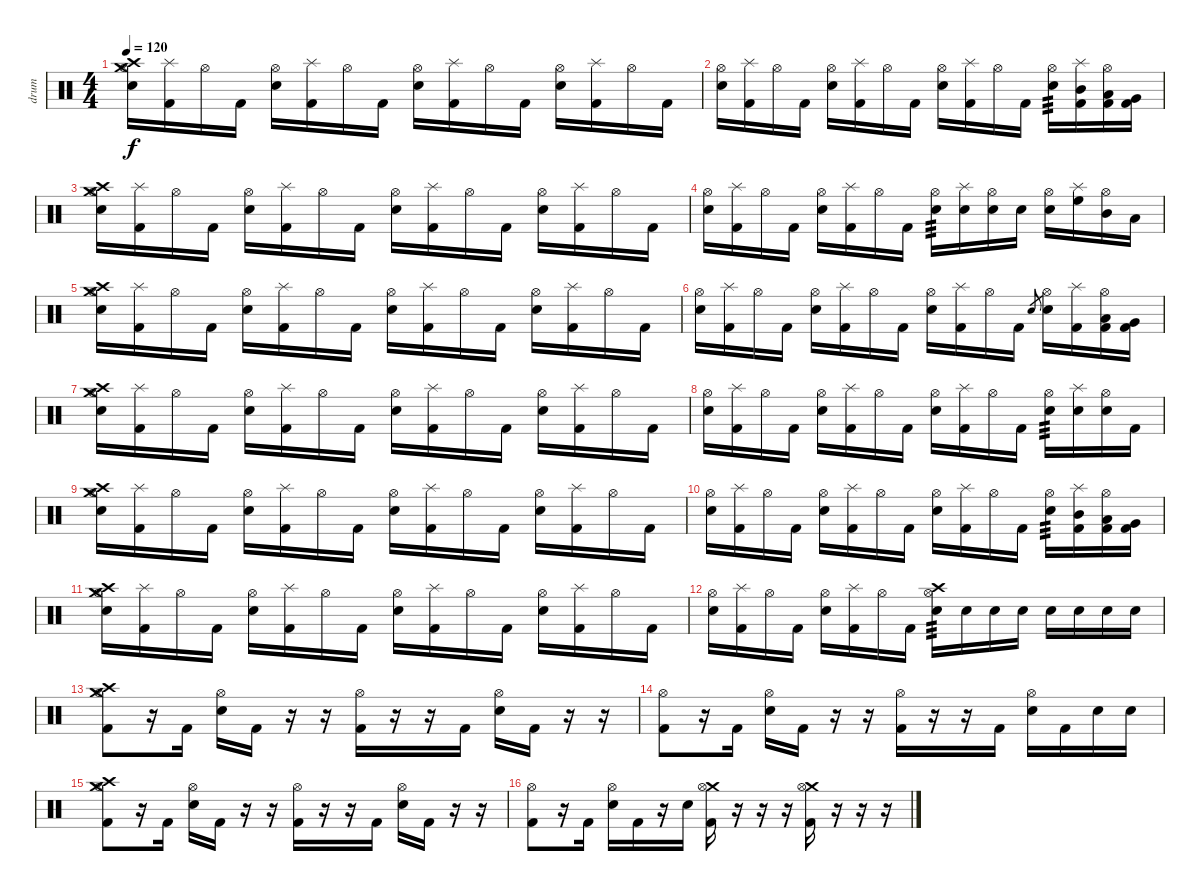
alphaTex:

\track ("drum" "drum") {instrument percussion}
\staff {score}
\articulation defaults
\ts (4 4)
\tempo 120
\clef neutral
\ks c
("Crash medium (hit)" "Hi-Hat (open)" "Crash high (hit)" "Electric Snare (hit)").16{dy f} ("Splash (hit)" "Kick (hit) 2").16 "Hi-Hat (open)".16 "Kick (hit) 2".16 ("Hi-Hat (open)" "Electric Snare (hit)").16 ("Splash (hit)" "Kick (hit) 2").16 "Hi-Hat (open)".16 "Kick (hit) 2".16 ("Hi-Hat (open)" "Electric Snare (hit)").16 ("Splash (hit)" "Kick (hit) 2").16 "Hi-Hat (open)".16 "Kick (hit) 2".16 ("Hi-Hat (open)" "Electric Snare (hit)").16 ("Splash (hit)" "Kick (hit) 2").16 "Hi-Hat (open)".16 "Kick (hit) 2".16 |
("Hi-Hat (open)" "Electric Snare (hit)").16 ("Splash (hit)" "Kick (hit) 2").16 "Hi-Hat (open)".16 "Kick (hit) 2".16 ("Hi-Hat (open)" "Electric Snare (hit)").16 ("Splash (hit)" "Kick (hit) 2").16 "Hi-Hat (open)".16 "Kick (hit) 2".16 ("Hi-Hat (open)" "Electric Snare (hit)").16 ("Splash (hit)" "Kick (hit) 2").16 "Hi-Hat (open)".16 "Kick (hit) 2".16 ("Hi-Hat (open)" "Electric Snare (hit)").16{tp 3} ("Splash (hit)" "Mid Tom (hit)" "Kick (hit) 2").16 ("Hi-Hat (open)" "Low Tom (hit)" "Kick (hit) 2").16 ("Very Low Tom (hit)" "Kick (hit) 2").16 |
("Crash medium (hit)" "Hi-Hat (open)" "Crash high (hit)" "Electric Snare (hit)").16 ("Splash (hit)" "Kick (hit) 2").16 "Hi-Hat (open)".16 "Kick (hit) 2".16 ("Hi-Hat (open)" "Electric Snare (hit)").16 ("Splash (hit)" "Kick (hit) 2").16 "Hi-Hat (open)".16 "Kick (hit) 2".16 ("Hi-Hat (open)" "Electric Snare (hit)").16 ("Splash (hit)" "Kick (hit) 2").16 "Hi-Hat (open)".16 "Kick (hit) 2".16 ("Hi-Hat (open)" "Electric Snare (hit)").16 ("Splash (hit)" "Kick (hit) 2").16 "Hi-Hat (open)".16 "Kick (hit) 2".16 |
("Hi-Hat (open)" "Electric Snare (hit)").16 ("Splash (hit)" "Kick (hit) 2").16 "Hi-Hat (open)".16 "Kick (hit) 2".16 ("Hi-Hat (open)" "Electric Snare (hit)").16 ("Splash (hit)" "Kick (hit) 2").16 "Hi-Hat (open)".16 "Kick (hit) 2".16 ("Hi-Hat (open)" "Electric Snare (hit)").16{tp 3} ("Splash (hit)" "Electric Snare (hit)").16 ("Hi-Hat (open)" "Electric Snare (hit)").16 "Electric Snare (hit)".16 ("Hi-Hat (open)" "Electric Snare (hit)").16 ("Splash (hit)" "High Floor Tom (hit)").16 ("Hi-Hat (open)" "Mid Tom (hit)").16 "Low Tom (hit)".16 |
("Crash medium (hit)" "Hi-Hat (open)" "Crash high (hit)" "Electric Snare (hit)").16 ("Splash (hit)" "Kick (hit) 2").16 "Hi-Hat (open)".16 "Kick (hit) 2".16 ("Hi-Hat (open)" "Electric Snare (hit)").16 ("Splash (hit)" "Kick (hit) 2").16 "Hi-Hat (open)".16 "Kick (hit) 2".16 ("Hi-Hat (open)" "Electric Snare (hit)").16 ("Splash (hit)" "Kick (hit) 2").16 "Hi-Hat (open)".16 "Kick (hit) 2".16 ("Hi-Hat (open)" "Electric Snare (hit)").16 ("Splash (hit)" "Kick (hit) 2").16 "Hi-Hat (open)".16 "Kick (hit) 2".16 |
("Hi-Hat (open)" "Electric Snare (hit)").16 ("Splash (hit)" "Kick (hit) 2").16 "Hi-Hat (open)".16 "Kick (hit) 2".16 ("Hi-Hat (open)" "Electric Snare (hit)").16 ("Splash (hit)" "Kick (hit) 2").16 "Hi-Hat (open)".16 "Kick (hit) 2".16 ("Hi-Hat (open)" "Electric Snare (hit)").16 ("Splash (hit)" "Kick (hit) 2").16 "Hi-Hat (open)".16 "Kick (hit) 2".16 "Electric Snare (hit)".8{gr} ("Hi-Hat (open)" "Electric Snare (hit)").16 ("Splash (hit)" "Kick (hit) 2").16 ("Hi-Hat (open)" "Low Tom (hit)" "Kick (hit) 2").16 ("Very Low Tom (hit)" "Kick (hit) 2").16 |
("Crash medium (hit)" "Hi-Hat (open)" "Crash high (hit)" "Electric Snare (hit)").16 ("Splash (hit)" "Kick (hit) 2").16 "Hi-Hat (open)".16 "Kick (hit) 2".16 ("Hi-Hat (open)" "Electric Snare (hit)").16 ("Splash (hit)" "Kick (hit) 2").16 "Hi-Hat (open)".16 "Kick (hit) 2".16 ("Hi-Hat (open)" "Electric Snare (hit)").16 ("Splash (hit)" "Kick (hit) 2").16 "Hi-Hat (open)".16 "Kick (hit) 2".16 ("Hi-Hat (open)" "Electric Snare (hit)").16 ("Splash (hit)" "Kick (hit) 2").16 "Hi-Hat (open)".16 "Kick (hit) 2".16 |
("Hi-Hat (open)" "Electric Snare (hit)").16 ("Splash (hit)" "Kick (hit) 2").16 "Hi-Hat (open)".16 "Kick (hit) 2".16 ("Hi-Hat (open)" "Electric Snare (hit)").16 ("Splash (hit)" "Kick (hit) 2").16 "Hi-Hat (open)".16 "Kick (hit) 2".16 ("Hi-Hat (open)" "Electric Snare (hit)").16 ("Splash (hit)" "Kick (hit) 2").16 "Hi-Hat (open)".16 "Kick (hit) 2".16 ("Hi-Hat (open)" "Electric Snare (hit)").16{tp 3} ("Splash (hit)" "Electric Snare (hit)").16 ("Hi-Hat (open)" "Electric Snare (hit)").16 "Kick (hit) 2".16 |
("Crash medium (hit)" "Hi-Hat (open)" "Crash high (hit)" "Electric Snare (hit)").16 ("Splash (hit)" "Kick (hit) 2").16 "Hi-Hat (open)".16 "Kick (hit) 2".16 ("Hi-Hat (open)" "Electric Snare (hit)").16 ("Splash (hit)" "Kick (hit) 2").16 "Hi-Hat (open)".16 "Kick (hit) 2".16 ("Hi-Hat (open)" "Electric Snare (hit)").16 ("Splash (hit)" "Kick (hit) 2").16 "Hi-Hat (open)".16 "Kick (hit) 2".16 ("Hi-Hat (open)" "Electric Snare (hit)").16 ("Splash (hit)" "Kick (hit) 2").16 "Hi-Hat (open)".16 "Kick (hit) 2".16 |
("Hi-Hat (open)" "Electric Snare (hit)").16 ("Splash (hit)" "Kick (hit) 2").16 "Hi-Hat (open)".16 "Kick (hit) 2".16 ("Hi-Hat (open)" "Electric Snare (hit)").16 ("Splash (hit)" "Kick (hit) 2").16 "Hi-Hat (open)".16 "Kick (hit) 2".16 ("Hi-Hat (open)" "Electric Snare (hit)").16 ("Splash (hit)" "Kick (hit) 2").16 "Hi-Hat (open)".16 "Kick (hit) 2".16 ("Hi-Hat (open)" "Electric Snare (hit)").16{tp 3} ("Splash (hit)" "Mid Tom (hit)" "Kick (hit) 2").16 ("Hi-Hat (open)" "Low Tom (hit)" "Kick (hit) 2").16 ("Very Low Tom (hit)" "Kick (hit) 2").16 |
("Crash medium (hit)" "Hi-Hat (open)" "Crash high (hit)" "Electric Snare (hit)").16 ("Splash (hit)" "Kick (hit) 2").16 "Hi-Hat (open)".16 "Kick (hit) 2".16 ("Hi-Hat (open)" "Electric Snare (hit)").16 ("Splash (hit)" "Kick (hit) 2").16 "Hi-Hat (open)".16 "Kick (hit) 2".16 ("Hi-Hat (open)" "Electric Snare (hit)").16 ("Splash (hit)" "Kick (hit) 2").16 "Hi-Hat (open)".16 "Kick (hit) 2".16 ("Hi-Hat (open)" "Electric Snare (hit)").16 ("Splash (hit)" "Kick (hit) 2").16 "Hi-Hat (open)".16 "Kick (hit) 2".16 |
("Hi-Hat (open)" "Electric Snare (hit)").16 ("Splash (hit)" "Kick (hit) 2").16 "Hi-Hat (open)".16 "Kick (hit) 2".16 ("Hi-Hat (open)" "Electric Snare (hit)").16 ("Splash (hit)" "Kick (hit) 2").16 "Hi-Hat (open)".16 "Kick (hit) 2".16 ("Crash high (hit)" "Hi-Hat (open)" "Electric Snare (hit)").16{tp 3} "Electric Snare (hit)".16 "Electric Snare (hit)".16 "Electric Snare (hit)".16 "Electric Snare (hit)".16 "Electric Snare (hit)".16 "Electric Snare (hit)".16 "Electric Snare (hit)".16 |
("Crash medium (hit)" "Hi-Hat (open)" "Crash high (hit)" "Kick (hit) 2").8 r.16 "Kick (hit) 2".16 ("Hi-Hat (open)" "Electric Snare (hit)").16 "Kick (hit) 2".16 r.16 r.16 ("Hi-Hat (open)" "Kick (hit) 2").16 r.16 r.16 "Kick (hit) 2".16 ("Hi-Hat (open)" "Electric Snare (hit)").16 "Kick (hit) 2".16 r.16 r.16 |
("Hi-Hat (open)" "Kick (hit) 2").8 r.16 "Kick (hit) 2".16 ("Hi-Hat (open)" "Electric Snare (hit)").16 "Kick (hit) 2".16 r.16 r.16 ("Hi-Hat (open)" "Kick (hit) 2").16 r.16 r.16 "Kick (hit) 2".16 ("Hi-Hat (open)" "Electric Snare (hit)").16 "Kick (hit) 2".16 "Electric Snare (hit)".16 "Electric Snare (hit)".16 |
("Crash medium (hit)" "Hi-Hat (open)" "Crash high (hit)" "Kick (hit) 2").8 r.16 "Kick (hit) 2".16 ("Hi-Hat (open)" "Electric Snare (hit)").16 "Kick (hit) 2".16 r.16 r.16 ("Hi-Hat (open)" "Kick (hit) 2").16 r.16 r.16 "Kick (hit) 2".16 ("Hi-Hat (open)" "Electric Snare (hit)").16 "Kick (hit) 2".16 r.16 r.16 |
("Hi-Hat (open)" "Kick (hit) 2").8 r.16 "Kick (hit) 2".16 ("Hi-Hat (open)" "Electric Snare (hit)").16 "Kick (hit) 2".16 r.16 "Electric Snare (hit)".16 ("Crash medium (hit)" "Hi-Hat (open)" "Kick (hit) 2").16 r.16 r.16 r.16 ("Crash medium (hit)" "Hi-Hat (open)" "Kick (hit) 2").16 r.16 r.16 r.16
